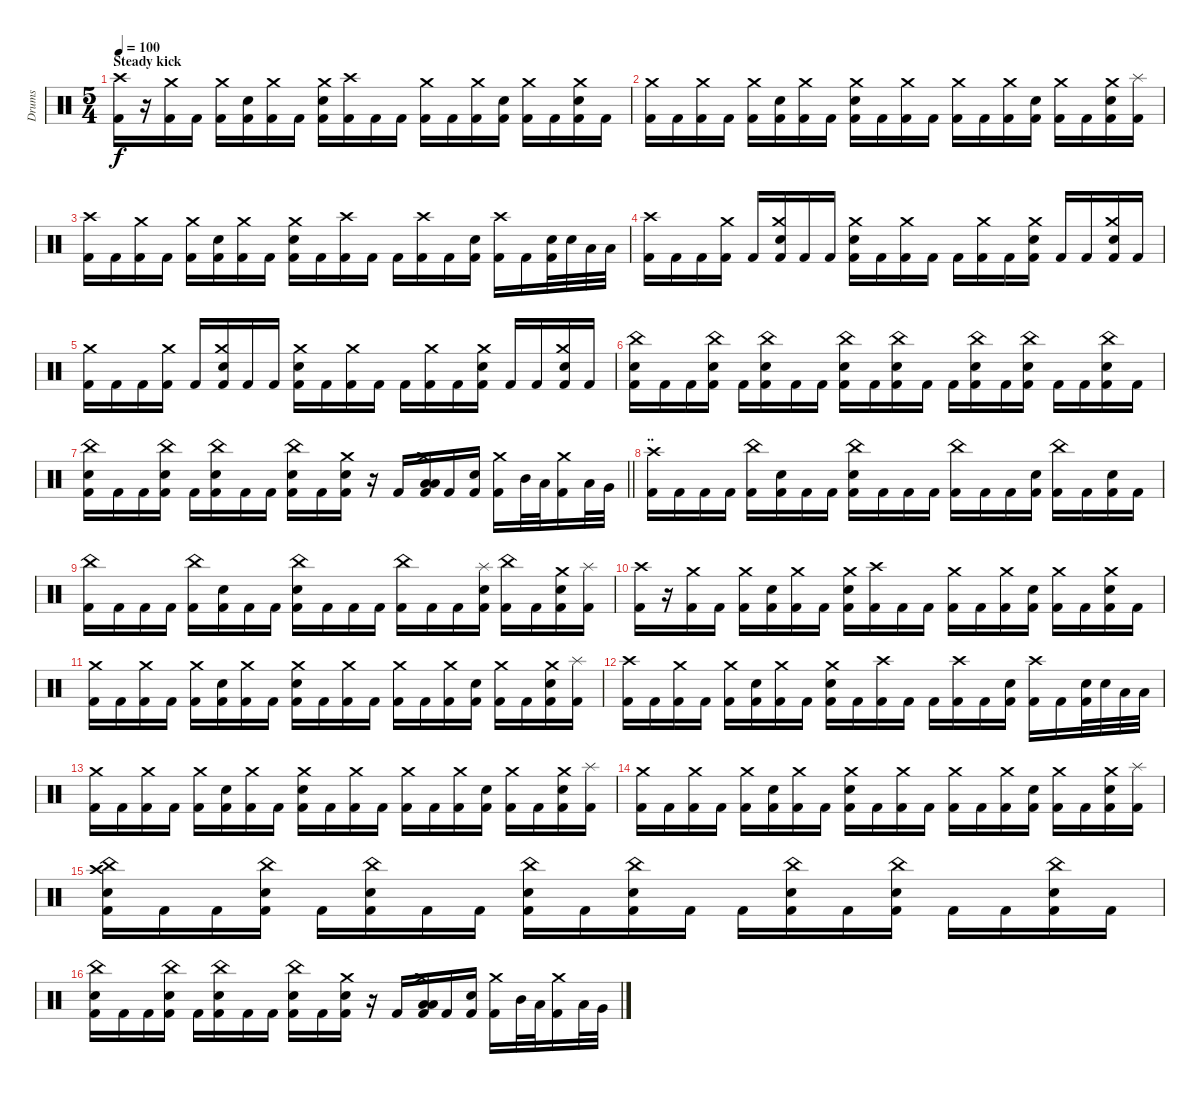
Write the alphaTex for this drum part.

\track ("Drums" "Drums") {instrument percussion}
\staff {score}
\articulation defaults
\ts (5 4)
\section ("" "Steady kick")
\tempo 100
\clef neutral
\ks c
("Crash high (hit)" "Kick (hit) 2").16{dy f} r.16 ("Crash medium (hit)" "Kick (hit) 2").16 "Kick (hit) 2".16 ("Crash medium (hit)" "Kick (hit) 2").16 ("Electric Snare (hit)" "Kick (hit) 2").16 ("Crash medium (hit)" "Kick (hit) 2").16 "Kick (hit) 2".16 ("Crash medium (hit)" "Electric Snare (hit)" "Kick (hit) 2").16 ("Crash high (hit)" "Kick (hit) 2").16 "Kick (hit) 2".16 "Kick (hit) 2".16 ("Crash medium (hit)" "Kick (hit) 2").16 "Kick (hit) 2".16 ("Crash medium (hit)" "Kick (hit) 2").16 ("Electric Snare (hit)" "Kick (hit) 2").16 ("Crash medium (hit)" "Kick (hit) 2").16 "Kick (hit) 2".16 ("Crash medium (hit)" "Electric Snare (hit)" "Kick (hit) 2").16 "Kick (hit) 2".16 |
("Crash medium (hit)" "Kick (hit) 2").16 "Kick (hit) 2".16 ("Crash medium (hit)" "Kick (hit) 2").16 "Kick (hit) 2".16 ("Crash medium (hit)" "Kick (hit) 2").16 ("Electric Snare (hit)" "Kick (hit) 2").16 ("Crash medium (hit)" "Kick (hit) 2").16 "Kick (hit) 2".16 ("Crash medium (hit)" "Electric Snare (hit)" "Kick (hit) 2").16 "Kick (hit) 2".16 ("Crash medium (hit)" "Kick (hit) 2").16 "Kick (hit) 2".16 ("Crash medium (hit)" "Kick (hit) 2").16 "Kick (hit) 2".16 ("Crash medium (hit)" "Kick (hit) 2").16 ("Electric Snare (hit)" "Kick (hit) 2").16 ("Crash medium (hit)" "Kick (hit) 2").16 "Kick (hit) 2".16 ("Crash medium (hit)" "Electric Snare (hit)" "Kick (hit) 2").16 ("Splash (hit)" "Kick (hit) 2").16 |
("Crash high (hit)" "Kick (hit) 2").16 "Kick (hit) 2".16 ("Crash medium (hit)" "Kick (hit) 2").16 "Kick (hit) 2".16 ("Crash medium (hit)" "Kick (hit) 2").16 ("Electric Snare (hit)" "Kick (hit) 2").16 ("Crash medium (hit)" "Kick (hit) 2").16 "Kick (hit) 2".16 ("Crash medium (hit)" "Electric Snare (hit)" "Kick (hit) 2").16 "Kick (hit) 2".16 ("Crash high (hit)" "Kick (hit) 2").16 "Kick (hit) 2".16 "Kick (hit) 2".16 ("Crash high (hit)" "Kick (hit) 2").16 "Kick (hit) 2".16 ("Electric Snare (hit)" "Kick (hit) 2").16 ("Crash high (hit)" "Kick (hit) 2").16 "Kick (hit) 2".16 ("Electric Snare (hit)" "Kick (hit) 2").32 "Electric Snare (hit)".32 "Low Tom (hit)".32 "Low Tom (hit)".32 |
("Crash high (hit)" "Kick (hit) 2").16 "Kick (hit) 2".16 "Kick (hit) 2".16 ("Crash medium (hit)" "Kick (hit) 2").16 "Kick (hit) 2".16 ("Crash medium (hit)" "Electric Snare (hit)" "Kick (hit) 2").16 "Kick (hit) 2".16 "Kick (hit) 2".16 ("Crash medium (hit)" "Electric Snare (hit)" "Kick (hit) 2").16 "Kick (hit) 2".16 ("Crash medium (hit)" "Kick (hit) 2").16 "Kick (hit) 2".16 "Kick (hit) 2".16 ("Crash medium (hit)" "Kick (hit) 2").16 "Kick (hit) 2".16 ("Crash medium (hit)" "Electric Snare (hit)" "Kick (hit) 2").16 "Kick (hit) 2".16 "Kick (hit) 2".16 ("Crash medium (hit)" "Electric Snare (hit)" "Kick (hit) 2").16 "Kick (hit) 2".16 |
("Crash medium (hit)" "Kick (hit) 2").16 "Kick (hit) 2".16 "Kick (hit) 2".16 ("Crash medium (hit)" "Kick (hit) 2").16 "Kick (hit) 2".16 ("Crash medium (hit)" "Electric Snare (hit)" "Kick (hit) 2").16 "Kick (hit) 2".16 "Kick (hit) 2".16 ("Crash medium (hit)" "Electric Snare (hit)" "Kick (hit) 2").16 "Kick (hit) 2".16 ("Crash medium (hit)" "Kick (hit) 2").16 "Kick (hit) 2".16 "Kick (hit) 2".16 ("Crash medium (hit)" "Kick (hit) 2").16 "Kick (hit) 2".16 ("Crash medium (hit)" "Electric Snare (hit)" "Kick (hit) 2").16 "Kick (hit) 2".16 "Kick (hit) 2".16 ("Crash medium (hit)" "Electric Snare (hit)" "Kick (hit) 2").16 "Kick (hit) 2".16 |
("China (hit)" "Electric Snare (hit)" "Kick (hit) 2").16 "Kick (hit) 2".16 "Kick (hit) 2".16 ("China (hit)" "Electric Snare (hit)" "Kick (hit) 2").16 "Kick (hit) 2".16 ("China (hit)" "Electric Snare (hit)" "Kick (hit) 2").16 "Kick (hit) 2".16 "Kick (hit) 2".16 ("China (hit)" "Electric Snare (hit)" "Kick (hit) 2").16 "Kick (hit) 2".16 ("China (hit)" "Electric Snare (hit)" "Kick (hit) 2").16 "Kick (hit) 2".16 "Kick (hit) 2".16 ("China (hit)" "Electric Snare (hit)" "Kick (hit) 2").16 "Kick (hit) 2".16 ("China (hit)" "Electric Snare (hit)" "Kick (hit) 2").16 "Kick (hit) 2".16 "Kick (hit) 2".16 ("China (hit)" "Electric Snare (hit)" "Kick (hit) 2").16 "Kick (hit) 2".16 |
\barLineRight lightlight
("China (hit)" "Electric Snare (hit)" "Kick (hit) 2").16 "Kick (hit) 2".16 "Kick (hit) 2".16 ("China (hit)" "Electric Snare (hit)" "Kick (hit) 2").16 "Kick (hit) 2".16 ("China (hit)" "Electric Snare (hit)" "Kick (hit) 2").16 "Kick (hit) 2".16 "Kick (hit) 2".16 ("China (hit)" "Electric Snare (hit)" "Kick (hit) 2").16 "Kick (hit) 2".16 ("Crash medium (hit)" "Electric Snare (hit)" "Kick (hit) 2").16 r.16 "Kick (hit) 2".16 ("Crash medium (hit)" "Low Tom (hit)" "Low Floor Tom (hit)" "Kick (hit) 2").16 "Kick (hit) 2".16 ("Electric Snare (hit)" "Kick (hit) 2").16 ("Crash medium (hit)" "Kick (hit) 2").16 "Mid Tom (hit)".32 "Low Tom (hit)".32 ("Crash medium (hit)" "Kick (hit) 2").16 "Low Tom (hit)".32 "Very Low Tom (hit)".32 |
\section ("" "..")
("Crash high (hit)" "Kick (hit) 2").16 "Kick (hit) 2".16 "Kick (hit) 2".16 "Kick (hit) 2".16 ("China (hit)" "Kick (hit) 2").16 ("Electric Snare (hit)" "Kick (hit) 2").16 "Kick (hit) 2".16 "Kick (hit) 2".16 ("China (hit)" "Electric Snare (hit)" "Kick (hit) 2").16 "Kick (hit) 2".16 "Kick (hit) 2".16 "Kick (hit) 2".16 ("China (hit)" "Kick (hit) 2").16 "Kick (hit) 2".16 "Kick (hit) 2".16 ("Electric Snare (hit)" "Kick (hit) 2").16 ("China (hit)" "Kick (hit) 2").16 "Kick (hit) 2".16 ("Electric Snare (hit)" "Kick (hit) 2").16 "Kick (hit) 2".16 |
("China (hit)" "Kick (hit) 2").16 "Kick (hit) 2".16 "Kick (hit) 2".16 "Kick (hit) 2".16 ("China (hit)" "Kick (hit) 2").16 ("Electric Snare (hit)" "Kick (hit) 2").16 "Kick (hit) 2".16 "Kick (hit) 2".16 ("China (hit)" "Electric Snare (hit)" "Kick (hit) 2").16 "Kick (hit) 2".16 "Kick (hit) 2".16 "Kick (hit) 2".16 ("China (hit)" "Kick (hit) 2").16 "Kick (hit) 2".16 "Kick (hit) 2".16 ("Splash (hit)" "Electric Snare (hit)" "Kick (hit) 2").16 ("China (hit)" "Kick (hit) 2").16 "Kick (hit) 2".16 ("Crash medium (hit)" "Electric Snare (hit)" "Kick (hit) 2").16 ("Splash (hit)" "Kick (hit) 2").16 |
("Crash high (hit)" "Kick (hit) 2").16 r.16 ("Crash medium (hit)" "Kick (hit) 2").16 "Kick (hit) 2".16 ("Crash medium (hit)" "Kick (hit) 2").16 ("Electric Snare (hit)" "Kick (hit) 2").16 ("Crash medium (hit)" "Kick (hit) 2").16 "Kick (hit) 2".16 ("Crash medium (hit)" "Electric Snare (hit)" "Kick (hit) 2").16 ("Crash high (hit)" "Kick (hit) 2").16 "Kick (hit) 2".16 "Kick (hit) 2".16 ("Crash medium (hit)" "Kick (hit) 2").16 "Kick (hit) 2".16 ("Crash medium (hit)" "Kick (hit) 2").16 ("Electric Snare (hit)" "Kick (hit) 2").16 ("Crash medium (hit)" "Kick (hit) 2").16 "Kick (hit) 2".16 ("Crash medium (hit)" "Electric Snare (hit)" "Kick (hit) 2").16 "Kick (hit) 2".16 |
("Crash medium (hit)" "Kick (hit) 2").16 "Kick (hit) 2".16 ("Crash medium (hit)" "Kick (hit) 2").16 "Kick (hit) 2".16 ("Crash medium (hit)" "Kick (hit) 2").16 ("Electric Snare (hit)" "Kick (hit) 2").16 ("Crash medium (hit)" "Kick (hit) 2").16 "Kick (hit) 2".16 ("Crash medium (hit)" "Electric Snare (hit)" "Kick (hit) 2").16 "Kick (hit) 2".16 ("Crash medium (hit)" "Kick (hit) 2").16 "Kick (hit) 2".16 ("Crash medium (hit)" "Kick (hit) 2").16 "Kick (hit) 2".16 ("Crash medium (hit)" "Kick (hit) 2").16 ("Electric Snare (hit)" "Kick (hit) 2").16 ("Crash medium (hit)" "Kick (hit) 2").16 "Kick (hit) 2".16 ("Crash medium (hit)" "Electric Snare (hit)" "Kick (hit) 2").16 ("Splash (hit)" "Kick (hit) 2").16 |
("Crash high (hit)" "Kick (hit) 2").16 "Kick (hit) 2".16 ("Crash medium (hit)" "Kick (hit) 2").16 "Kick (hit) 2".16 ("Crash medium (hit)" "Kick (hit) 2").16 ("Electric Snare (hit)" "Kick (hit) 2").16 ("Crash medium (hit)" "Kick (hit) 2").16 "Kick (hit) 2".16 ("Crash medium (hit)" "Electric Snare (hit)" "Kick (hit) 2").16 "Kick (hit) 2".16 ("Crash high (hit)" "Kick (hit) 2").16 "Kick (hit) 2".16 "Kick (hit) 2".16 ("Crash high (hit)" "Kick (hit) 2").16 "Kick (hit) 2".16 ("Electric Snare (hit)" "Kick (hit) 2").16 ("Crash high (hit)" "Kick (hit) 2").16 "Kick (hit) 2".16 ("Electric Snare (hit)" "Kick (hit) 2").32 "Electric Snare (hit)".32 "Low Tom (hit)".32 "Low Tom (hit)".32 |
("Crash medium (hit)" "Kick (hit) 2").16 "Kick (hit) 2".16 ("Crash medium (hit)" "Kick (hit) 2").16 "Kick (hit) 2".16 ("Crash medium (hit)" "Kick (hit) 2").16 ("Electric Snare (hit)" "Kick (hit) 2").16 ("Crash medium (hit)" "Kick (hit) 2").16 "Kick (hit) 2".16 ("Crash medium (hit)" "Electric Snare (hit)" "Kick (hit) 2").16 "Kick (hit) 2".16 ("Crash medium (hit)" "Kick (hit) 2").16 "Kick (hit) 2".16 ("Crash medium (hit)" "Kick (hit) 2").16 "Kick (hit) 2".16 ("Crash medium (hit)" "Kick (hit) 2").16 ("Electric Snare (hit)" "Kick (hit) 2").16 ("Crash medium (hit)" "Kick (hit) 2").16 "Kick (hit) 2".16 ("Crash medium (hit)" "Electric Snare (hit)" "Kick (hit) 2").16 ("Splash (hit)" "Kick (hit) 2").16 |
("Crash medium (hit)" "Kick (hit) 2").16 "Kick (hit) 2".16 ("Crash medium (hit)" "Kick (hit) 2").16 "Kick (hit) 2".16 ("Crash medium (hit)" "Kick (hit) 2").16 ("Electric Snare (hit)" "Kick (hit) 2").16 ("Crash medium (hit)" "Kick (hit) 2").16 "Kick (hit) 2".16 ("Crash medium (hit)" "Electric Snare (hit)" "Kick (hit) 2").16 "Kick (hit) 2".16 ("Crash medium (hit)" "Kick (hit) 2").16 "Kick (hit) 2".16 ("Crash medium (hit)" "Kick (hit) 2").16 "Kick (hit) 2".16 ("Crash medium (hit)" "Kick (hit) 2").16 ("Electric Snare (hit)" "Kick (hit) 2").16 ("Crash medium (hit)" "Kick (hit) 2").16 "Kick (hit) 2".16 ("Crash medium (hit)" "Electric Snare (hit)" "Kick (hit) 2").16 ("Splash (hit)" "Kick (hit) 2").16 |
("China (hit)" "Crash high (hit)" "Electric Snare (hit)" "Kick (hit) 2").16 "Kick (hit) 2".16 "Kick (hit) 2".16 ("China (hit)" "Electric Snare (hit)" "Kick (hit) 2").16 "Kick (hit) 2".16 ("China (hit)" "Electric Snare (hit)" "Kick (hit) 2").16 "Kick (hit) 2".16 "Kick (hit) 2".16 ("China (hit)" "Electric Snare (hit)" "Kick (hit) 2").16 "Kick (hit) 2".16 ("China (hit)" "Electric Snare (hit)" "Kick (hit) 2").16 "Kick (hit) 2".16 "Kick (hit) 2".16 ("China (hit)" "Electric Snare (hit)" "Kick (hit) 2").16 "Kick (hit) 2".16 ("China (hit)" "Electric Snare (hit)" "Kick (hit) 2").16 "Kick (hit) 2".16 "Kick (hit) 2".16 ("China (hit)" "Electric Snare (hit)" "Kick (hit) 2").16 "Kick (hit) 2".16 |
("China (hit)" "Electric Snare (hit)" "Kick (hit) 2").16 "Kick (hit) 2".16 "Kick (hit) 2".16 ("China (hit)" "Electric Snare (hit)" "Kick (hit) 2").16 "Kick (hit) 2".16 ("China (hit)" "Electric Snare (hit)" "Kick (hit) 2").16 "Kick (hit) 2".16 "Kick (hit) 2".16 ("China (hit)" "Electric Snare (hit)" "Kick (hit) 2").16 "Kick (hit) 2".16 ("Crash medium (hit)" "Electric Snare (hit)" "Kick (hit) 2").16 r.16 "Kick (hit) 2".16 ("Crash medium (hit)" "Low Tom (hit)" "Low Floor Tom (hit)" "Kick (hit) 2").16 "Kick (hit) 2".16 ("Electric Snare (hit)" "Kick (hit) 2").16 ("Crash medium (hit)" "Kick (hit) 2").16 "Mid Tom (hit)".32 "Low Tom (hit)".32 ("Crash medium (hit)" "Kick (hit) 2").16 "Low Tom (hit)".32 "Very Low Tom (hit)".32
